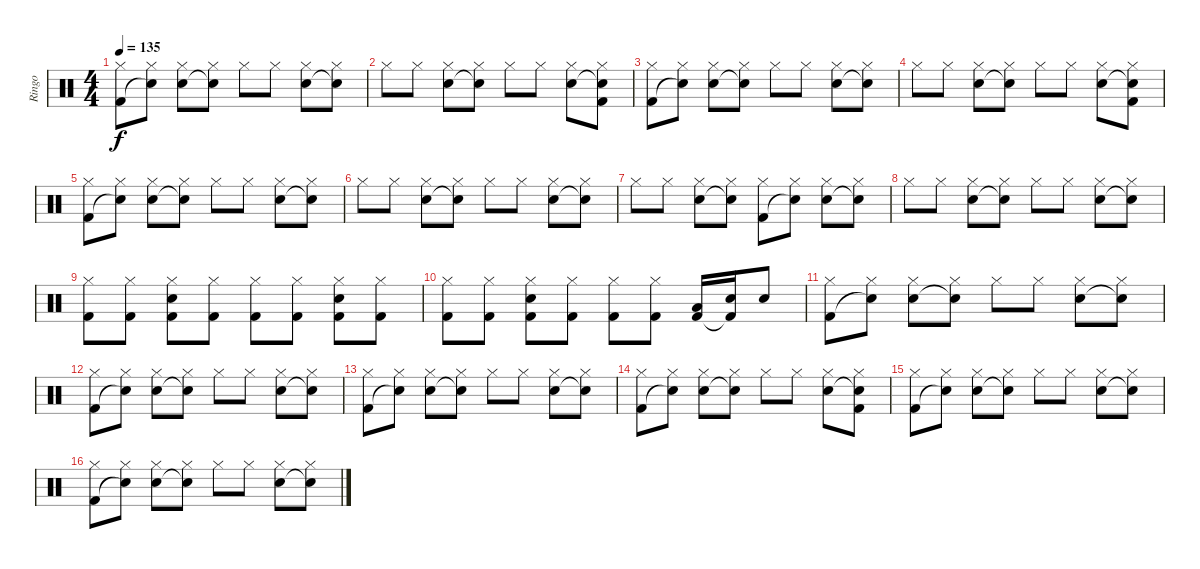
\track ("Ringo" "Ringo") {instrument percussion}
\staff {score}
\articulation defaults
\ts (4 4)
\tempo 135
\clef neutral
\ks c
("Hi-Hat (closed)" "Kick (hit) 2").8{dy f} ("Hi-Hat (closed)" "Snare (hit)"{t}).8 ("Hi-Hat (closed)" "Snare (hit) 2").8 ("Hi-Hat (closed)" "Snare (hit)"{t}).8 "Hi-Hat (closed)".8 "Hi-Hat (closed)".8 ("Hi-Hat (closed)" "Snare (hit) 2").8 ("Hi-Hat (closed)" "Snare (hit)"{t}).8 |
"Hi-Hat (closed)".8 "Hi-Hat (closed)".8 ("Hi-Hat (closed)" "Snare (hit) 2").8 ("Hi-Hat (closed)" "Snare (hit)"{t}).8 "Hi-Hat (closed)".8 "Hi-Hat (closed)".8 ("Hi-Hat (closed)" "Snare (hit) 2").8 ("Hi-Hat (closed)" "Snare (hit)"{t} "Kick (hit) 2").8 |
("Hi-Hat (closed)" "Kick (hit) 2").8 ("Hi-Hat (closed)" "Snare (hit)"{t}).8 ("Hi-Hat (closed)" "Snare (hit) 2").8 ("Hi-Hat (closed)" "Snare (hit)"{t}).8 "Hi-Hat (closed)".8 "Hi-Hat (closed)".8 ("Hi-Hat (closed)" "Snare (hit) 2").8 ("Hi-Hat (closed)" "Snare (hit)"{t}).8 |
"Hi-Hat (closed)".8 "Hi-Hat (closed)".8 ("Hi-Hat (closed)" "Snare (hit) 2").8 ("Hi-Hat (closed)" "Snare (hit)"{t}).8 "Hi-Hat (closed)".8 "Hi-Hat (closed)".8 ("Hi-Hat (closed)" "Snare (hit) 2").8 ("Hi-Hat (closed)" "Snare (hit)"{t} "Kick (hit) 2").8 |
("Hi-Hat (closed)" "Kick (hit) 2").8 ("Hi-Hat (closed)" "Snare (hit)"{t}).8 ("Hi-Hat (closed)" "Snare (hit) 2").8 ("Hi-Hat (closed)" "Snare (hit)"{t}).8 "Hi-Hat (closed)".8 "Hi-Hat (closed)".8 ("Hi-Hat (closed)" "Snare (hit) 2").8 ("Hi-Hat (closed)" "Snare (hit)"{t}).8 |
"Hi-Hat (closed)".8 "Hi-Hat (closed)".8 ("Hi-Hat (closed)" "Snare (hit) 2").8 ("Hi-Hat (closed)" "Snare (hit)"{t}).8 "Hi-Hat (closed)".8 "Hi-Hat (closed)".8 ("Hi-Hat (closed)" "Snare (hit) 2").8 ("Hi-Hat (closed)" "Snare (hit)"{t}).8 |
"Hi-Hat (closed)".8 "Hi-Hat (closed)".8 ("Hi-Hat (closed)" "Snare (hit) 2").8 ("Hi-Hat (closed)" "Snare (hit)"{t}).8 ("Hi-Hat (closed)" "Kick (hit) 2").8 ("Hi-Hat (closed)" "Snare (hit)"{t}).8 ("Hi-Hat (closed)" "Snare (hit) 2").8 ("Hi-Hat (closed)" "Snare (hit)"{t}).8 |
"Hi-Hat (closed)".8 "Hi-Hat (closed)".8 ("Hi-Hat (closed)" "Snare (hit) 2").8 ("Hi-Hat (closed)" "Snare (hit)"{t}).8 "Hi-Hat (closed)".8 "Hi-Hat (closed)".8 ("Hi-Hat (closed)" "Snare (hit) 2").8 ("Hi-Hat (closed)" "Snare (hit)"{t}).8 |
("Hi-Hat (closed)" "Kick (hit) 2").8 ("Hi-Hat (closed)" "Kick (hit) 2").8 ("Hi-Hat (closed)" "Snare (hit) 2" "Kick (hit) 2").8 ("Hi-Hat (closed)" "Kick (hit) 2").8 ("Hi-Hat (closed)" "Kick (hit) 2").8 ("Hi-Hat (closed)" "Kick (hit) 2").8 ("Hi-Hat (closed)" "Snare (hit) 2" "Kick (hit) 2").8 ("Hi-Hat (closed)" "Kick (hit) 2").8 |
("Hi-Hat (closed)" "Kick (hit) 2").8 ("Hi-Hat (closed)" "Kick (hit) 2").8 ("Hi-Hat (closed)" "Snare (hit) 2" "Kick (hit) 2").8 ("Hi-Hat (closed)" "Kick (hit) 2").8 ("Hi-Hat (closed)" "Kick (hit) 2").8 ("Hi-Hat (closed)" "Kick (hit) 2").8 ("Low Tom (hit)" "Kick (hit) 2").16 ("Snare (hit) 2" "Kick (hit) 2"{t}).16 "Snare (hit) 2".8 |
("Hi-Hat (closed)" "Kick (hit) 2").8 ("Hi-Hat (closed)" "Snare (hit)"{t}).8 ("Hi-Hat (closed)" "Snare (hit) 2").8 ("Hi-Hat (closed)" "Snare (hit)"{t}).8 "Hi-Hat (closed)".8 "Hi-Hat (closed)".8 ("Hi-Hat (closed)" "Snare (hit) 2").8 ("Hi-Hat (closed)" "Snare (hit)"{t}).8 |
("Hi-Hat (closed)" "Kick (hit) 2").8 ("Hi-Hat (closed)" "Snare (hit)"{t}).8 ("Hi-Hat (closed)" "Snare (hit) 2").8 ("Hi-Hat (closed)" "Snare (hit)"{t}).8 "Hi-Hat (closed)".8 "Hi-Hat (closed)".8 ("Hi-Hat (closed)" "Snare (hit) 2").8 ("Hi-Hat (closed)" "Snare (hit)"{t}).8 |
("Hi-Hat (closed)" "Kick (hit) 2").8 ("Hi-Hat (closed)" "Snare (hit)"{t}).8 ("Hi-Hat (closed)" "Snare (hit) 2").8 ("Hi-Hat (closed)" "Snare (hit)"{t}).8 "Hi-Hat (closed)".8 "Hi-Hat (closed)".8 ("Hi-Hat (closed)" "Snare (hit) 2").8 ("Hi-Hat (closed)" "Snare (hit)"{t}).8 |
("Hi-Hat (closed)" "Kick (hit) 2").8 ("Hi-Hat (closed)" "Snare (hit)"{t}).8 ("Hi-Hat (closed)" "Snare (hit) 2").8 ("Hi-Hat (closed)" "Snare (hit)"{t}).8 "Hi-Hat (closed)".8 "Hi-Hat (closed)".8 ("Hi-Hat (closed)" "Snare (hit) 2").8 ("Hi-Hat (closed)" "Snare (hit)"{t} "Kick (hit) 2").8 |
("Hi-Hat (closed)" "Kick (hit) 2").8 ("Hi-Hat (closed)" "Snare (hit)"{t}).8 ("Hi-Hat (closed)" "Snare (hit) 2").8 ("Hi-Hat (closed)" "Snare (hit)"{t}).8 "Hi-Hat (closed)".8 "Hi-Hat (closed)".8 ("Hi-Hat (closed)" "Snare (hit) 2").8 ("Hi-Hat (closed)" "Snare (hit)"{t}).8 |
("Hi-Hat (closed)" "Kick (hit) 2").8 ("Hi-Hat (closed)" "Snare (hit)"{t}).8 ("Hi-Hat (closed)" "Snare (hit) 2").8 ("Hi-Hat (closed)" "Snare (hit)"{t}).8 "Hi-Hat (closed)".8 "Hi-Hat (closed)".8 ("Hi-Hat (closed)" "Snare (hit) 2").8 ("Hi-Hat (closed)" "Snare (hit)"{t}).8
